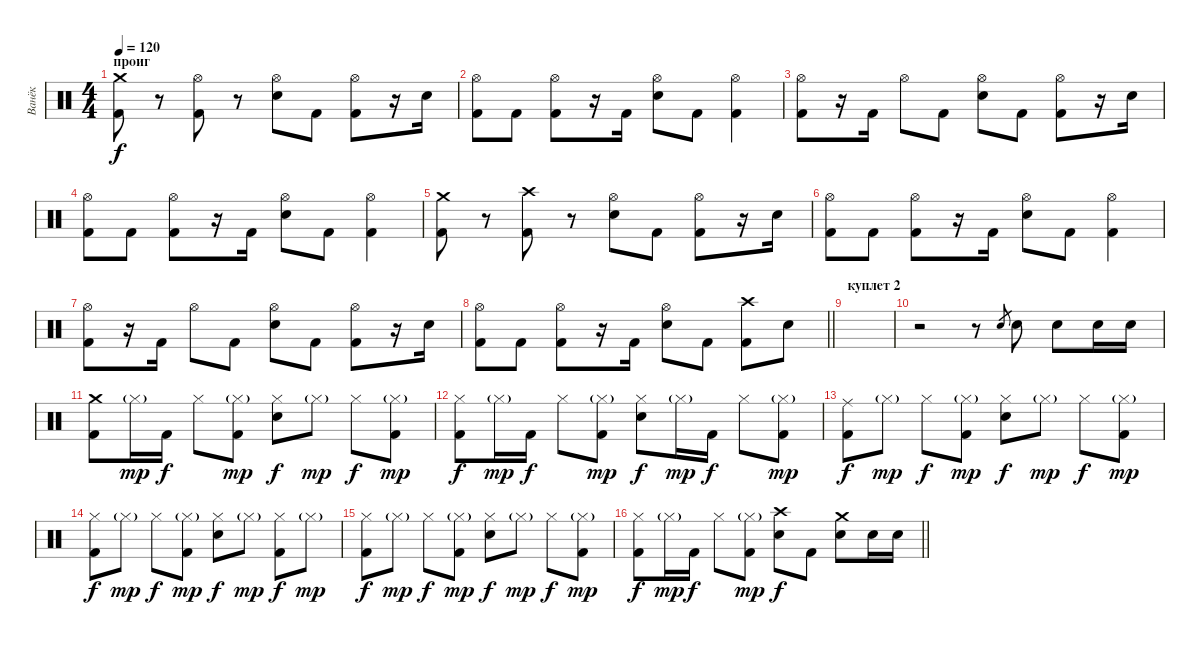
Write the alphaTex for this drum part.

\track ("Ванёк" "Ванёк") {instrument percussion}
\staff {score}
\articulation defaults
\ts (4 4)
\section ("" "проиг")
\tempo 120
\clef neutral
\ks c
("Crash medium (hit)" "Kick (hit) 2").8{dy f} r.8 ("Hi-Hat (open)" "Kick (hit) 2").8 r.8 ("Hi-Hat (open)" "Snare (hit) 2").8 "Kick (hit) 2".8 ("Hi-Hat (open)" "Kick (hit) 2").8 r.16 "Snare (hit) 2".16 |
("Hi-Hat (open)" "Kick (hit) 2").8 "Kick (hit) 2".8 ("Hi-Hat (open)" "Kick (hit) 2").8 r.16 "Kick (hit) 2".16 ("Hi-Hat (open)" "Snare (hit) 2").8 "Kick (hit) 2".8 ("Hi-Hat (open)" "Kick (hit) 2").4 |
("Hi-Hat (open)" "Kick (hit) 2").8 r.16 "Kick (hit) 2".16 "Hi-Hat (open)".8 "Kick (hit) 2".8 ("Hi-Hat (open)" "Snare (hit) 2").8 "Kick (hit) 2".8 ("Hi-Hat (open)" "Kick (hit) 2").8 r.16 "Snare (hit) 2".16 |
("Hi-Hat (open)" "Kick (hit) 2").8 "Kick (hit) 2".8 ("Hi-Hat (open)" "Kick (hit) 2").8 r.16 "Kick (hit) 2".16 ("Hi-Hat (open)" "Snare (hit) 2").8 "Kick (hit) 2".8 ("Hi-Hat (open)" "Kick (hit) 2").4 |
("Crash medium (hit)" "Kick (hit) 2").8 r.8 ("Crash high (hit)" "Kick (hit) 2").8 r.8 ("Hi-Hat (open)" "Snare (hit) 2").8 "Kick (hit) 2".8 ("Hi-Hat (open)" "Kick (hit) 2").8 r.16 "Snare (hit) 2".16 |
("Hi-Hat (open)" "Kick (hit) 2").8 "Kick (hit) 2".8 ("Hi-Hat (open)" "Kick (hit) 2").8 r.16 "Kick (hit) 2".16 ("Hi-Hat (open)" "Snare (hit) 2").8 "Kick (hit) 2".8 ("Hi-Hat (open)" "Kick (hit) 2").4 |
("Hi-Hat (open)" "Kick (hit) 2").8 r.16 "Kick (hit) 2".16 "Hi-Hat (open)".8 "Kick (hit) 2".8 ("Hi-Hat (open)" "Snare (hit) 2").8 "Kick (hit) 2".8 ("Hi-Hat (open)" "Kick (hit) 2").8 r.16 "Snare (hit) 2".16 |
\barLineRight lightlight
("Hi-Hat (open)" "Kick (hit) 2").8 "Kick (hit) 2".8 ("Hi-Hat (open)" "Kick (hit) 2").8 r.16 "Kick (hit) 2".16 ("Hi-Hat (open)" "Snare (hit) 2").8 "Kick (hit) 2".8 ("Crash high (hit)" "Kick (hit) 2").8 "Snare (hit) 2".8 |
\section ("" "куплет 2")
|
r.2 r.8 "Snare (hit) 2".8{gr} "Snare (hit) 2".8 "Snare (hit) 2".8 "Snare (hit) 2".16 "Snare (hit) 2".16 |
("Crash medium (hit)" "Kick (hit) 2").8 "Hi-Hat (closed)"{g}.16{dy mp} "Kick (hit) 2".16{dy f} "Hi-Hat (closed)".8 ("Hi-Hat (closed)"{g} "Kick (hit) 2").8{dy mp} ("Hi-Hat (closed)" "Snare (hit) 2").8{dy f} "Hi-Hat (closed)"{g}.8{dy mp} "Hi-Hat (closed)".8{dy f} ("Hi-Hat (closed)"{g} "Kick (hit) 2").8{dy mp} |
("Hi-Hat (closed)" "Kick (hit) 2").8{dy f} "Hi-Hat (closed)"{g}.16{dy mp} "Kick (hit) 2".16{dy f} "Hi-Hat (closed)".8 ("Hi-Hat (closed)"{g} "Kick (hit) 2").8{dy mp} ("Hi-Hat (closed)" "Snare (hit) 2").8{dy f} "Hi-Hat (closed)"{g}.16{dy mp} "Kick (hit) 2".16{dy f} "Hi-Hat (closed)".8 ("Hi-Hat (closed)"{g} "Kick (hit) 2").8{dy mp} |
("Ride (middle)" "Kick (hit) 2").8{dy f} "Hi-Hat (closed)"{g}.8{dy mp} "Hi-Hat (closed)".8{dy f} ("Hi-Hat (closed)"{g} "Kick (hit) 2").8{dy mp} ("Hi-Hat (closed)" "Snare (hit) 2").8{dy f} "Hi-Hat (closed)"{g}.8{dy mp} "Hi-Hat (closed)".8{dy f} ("Hi-Hat (closed)"{g} "Kick (hit) 2").8{dy mp} |
("Hi-Hat (closed)" "Kick (hit) 2").8{dy f} "Hi-Hat (closed)"{g}.8{dy mp} "Hi-Hat (closed)".8{dy f} ("Hi-Hat (closed)"{g} "Kick (hit) 2").8{dy mp} ("Hi-Hat (closed)" "Snare (hit) 2").8{dy f} "Hi-Hat (closed)"{g}.8{dy mp} ("Hi-Hat (closed)" "Kick (hit) 2").8{dy f} "Hi-Hat (closed)"{g}.8{dy mp} |
("Hi-Hat (closed)" "Kick (hit) 2").8{dy f} "Hi-Hat (closed)"{g}.8{dy mp} "Hi-Hat (closed)".8{dy f} ("Hi-Hat (closed)"{g} "Kick (hit) 2").8{dy mp} ("Hi-Hat (closed)" "Snare (hit) 2").8{dy f} "Hi-Hat (closed)"{g}.8{dy mp} "Hi-Hat (closed)".8{dy f} ("Hi-Hat (closed)"{g} "Kick (hit) 2").8{dy mp} |
\barLineRight lightlight
("Hi-Hat (closed)" "Kick (hit) 2").8{dy f} "Hi-Hat (closed)"{g}.16{dy mp} "Kick (hit) 2".16{dy f} "Hi-Hat (closed)".8 ("Hi-Hat (closed)"{g} "Kick (hit) 2").8{dy mp} ("Crash high (hit)" "Snare (hit) 2").8{dy f} "Kick (hit) 2".8 ("Crash medium (hit)" "Snare (hit) 2").8 "Snare (hit) 2".16 "Snare (hit) 2".16
